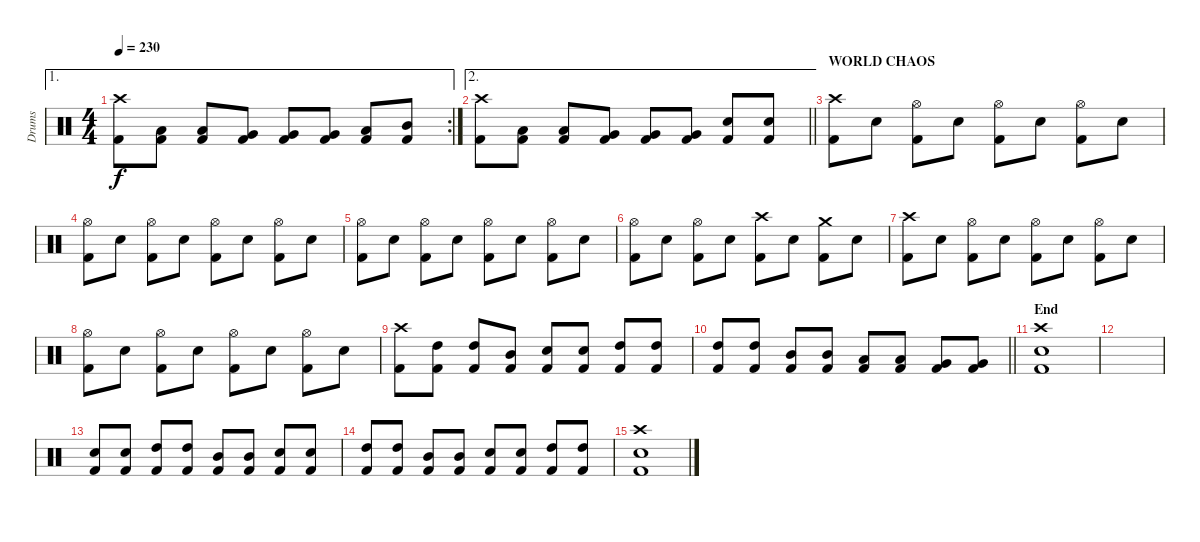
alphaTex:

\track ("Drums" "Drums") {instrument percussion}
\staff {score}
\articulation defaults
\ae 1
\rc 2
\ts (4 4)
\tempo 230
\clef neutral
\ks c
("Crash high (hit)" "Kick (hit) 2").8{dy f} ("Low Tom (hit)" "Kick (hit) 2").8 ("Low Tom (hit)" "Kick (hit) 2").8 ("Very Low Tom (hit)" "Kick (hit) 2").8 ("Very Low Tom (hit)" "Kick (hit) 2").8 ("Very Low Tom (hit)" "Kick (hit) 2").8 ("Low Tom (hit)" "Kick (hit) 2").8 ("Mid Tom (hit)" "Kick (hit) 2").8 |
\ae 2
\barLineRight lightlight
("Crash high (hit)" "Kick (hit) 2").8 ("Low Tom (hit)" "Kick (hit) 2").8 ("Low Tom (hit)" "Kick (hit) 2").8 ("Very Low Tom (hit)" "Kick (hit) 2").8 ("Very Low Tom (hit)" "Kick (hit) 2").8 ("Very Low Tom (hit)" "Kick (hit) 2").8 ("Electric Snare (hit)" "Kick (hit) 2").8 ("Electric Snare (hit)" "Kick (hit) 2").8 |
\section ("" "WORLD CHAOS")
("Crash high (hit)" "Kick (hit) 2").8 "Electric Snare (hit)".8 ("Hi-Hat (open)" "Kick (hit) 2").8 "Electric Snare (hit)".8 ("Hi-Hat (open)" "Kick (hit) 2").8 "Electric Snare (hit)".8 ("Hi-Hat (open)" "Kick (hit) 2").8 "Electric Snare (hit)".8 |
("Hi-Hat (open)" "Kick (hit) 2").8 "Electric Snare (hit)".8 ("Hi-Hat (open)" "Kick (hit) 2").8 "Electric Snare (hit)".8 ("Hi-Hat (open)" "Kick (hit) 2").8 "Electric Snare (hit)".8 ("Hi-Hat (open)" "Kick (hit) 2").8 "Electric Snare (hit)".8 |
("Hi-Hat (open)" "Kick (hit) 2").8 "Electric Snare (hit)".8 ("Hi-Hat (open)" "Kick (hit) 2").8 "Electric Snare (hit)".8 ("Hi-Hat (open)" "Kick (hit) 2").8 "Electric Snare (hit)".8 ("Hi-Hat (open)" "Kick (hit) 2").8 "Electric Snare (hit)".8 |
("Hi-Hat (open)" "Kick (hit) 2").8 "Electric Snare (hit)".8 ("Hi-Hat (open)" "Kick (hit) 2").8 "Electric Snare (hit)".8 ("Crash high (hit)" "Kick (hit) 2").8 "Electric Snare (hit)".8 ("Crash medium (hit)" "Kick (hit) 2").8 "Electric Snare (hit)".8 |
("Crash high (hit)" "Kick (hit) 2").8 "Electric Snare (hit)".8 ("Hi-Hat (open)" "Kick (hit) 2").8 "Electric Snare (hit)".8 ("Hi-Hat (open)" "Kick (hit) 2").8 "Electric Snare (hit)".8 ("Hi-Hat (open)" "Kick (hit) 2").8 "Electric Snare (hit)".8 |
("Hi-Hat (open)" "Kick (hit) 2").8 "Electric Snare (hit)".8 ("Hi-Hat (open)" "Kick (hit) 2").8 "Electric Snare (hit)".8 ("Hi-Hat (open)" "Kick (hit) 2").8 "Electric Snare (hit)".8 ("Hi-Hat (open)" "Kick (hit) 2").8 "Electric Snare (hit)".8 |
("Crash high (hit)" "Kick (hit) 2").8 ("High Tom (hit)" "Kick (hit) 2").8 ("High Tom (hit)" "Kick (hit) 2").8 ("Mid Tom (hit)" "Kick (hit) 2").8 ("Electric Snare (hit)" "Kick (hit) 2").8 ("Electric Snare (hit)" "Kick (hit) 2").8 ("High Tom (hit)" "Kick (hit) 2").8 ("High Tom (hit)" "Kick (hit) 2").8 |
\barLineRight lightlight
("High Tom (hit)" "Kick (hit) 2").8 ("High Tom (hit)" "Kick (hit) 2").8 ("Mid Tom (hit)" "Kick (hit) 2").8 ("Mid Tom (hit)" "Kick (hit) 2").8 ("Low Tom (hit)" "Kick (hit) 2").8 ("Low Tom (hit)" "Kick (hit) 2").8 ("Very Low Tom (hit)" "Kick (hit) 2").8 ("Very Low Tom (hit)" "Kick (hit) 2").8 |
\section ("" "End")
("Crash high (hit)" "Electric Snare (hit)" "Kick (hit) 2").1 |
|
("Electric Snare (hit)" "Kick (hit) 2").8 ("Electric Snare (hit)" "Kick (hit) 2").8 ("High Tom (hit)" "Kick (hit) 2").8 ("High Tom (hit)" "Kick (hit) 2").8 ("Mid Tom (hit)" "Kick (hit) 2").8 ("Mid Tom (hit)" "Kick (hit) 2").8 ("Electric Snare (hit)" "Kick (hit) 2").8 ("Electric Snare (hit)" "Kick (hit) 2").8 |
("High Tom (hit)" "Kick (hit) 2").8 ("High Tom (hit)" "Kick (hit) 2").8 ("Mid Tom (hit)" "Kick (hit) 2").8 ("Mid Tom (hit)" "Kick (hit) 2").8 ("Electric Snare (hit)" "Kick (hit) 2").8 ("Electric Snare (hit)" "Kick (hit) 2").8 ("High Tom (hit)" "Kick (hit) 2").8 ("High Tom (hit)" "Kick (hit) 2").8 |
("Crash high (hit)" "Electric Snare (hit)" "Kick (hit) 2").1
